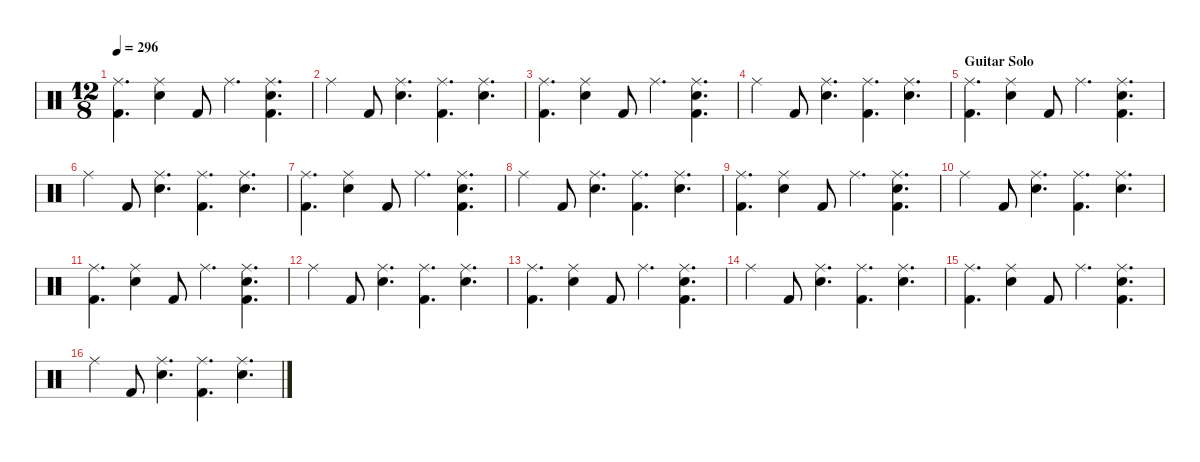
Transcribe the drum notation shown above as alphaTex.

\hideDynamics
\bracketExtendMode nobrackets
\singleTrackTrackNamePolicy hidden
\multiTrackTrackNamePolicy hidden
\firstSystemTrackNameMode fullname
\firstSystemTrackNameOrientation horizontal
\otherSystemsTrackNameOrientation horizontal
\track ("Drumkit" "Drums") {instrument percussion}
\staff {score}
\articulation defaults
\ts (12 8)
\tempo 296
\clef neutral
\ks c
("Ride (middle)" "Kick (hit) 2").4{d dy f beam Down} ("Ride (middle)" "Snare (hit) 2").4{beam Down} "Kick (hit) 2".8{beam Up} "Ride (middle)".4{d beam Down} ("Ride (middle)" "Snare (hit) 2" "Kick (hit) 2").4{d beam Down} |
"Ride (middle)".4{beam Down} "Kick (hit) 2".8{beam Up} ("Ride (middle)" "Snare (hit) 2").4{d beam Down} ("Ride (middle)" "Kick (hit) 2").4{d beam Down} ("Ride (middle)" "Snare (hit) 2").4{d beam Down} |
("Ride (middle)" "Kick (hit) 2").4{d beam Down} ("Ride (middle)" "Snare (hit) 2").4{beam Down} "Kick (hit) 2".8{beam Up} "Ride (middle)".4{d beam Down} ("Ride (middle)" "Snare (hit) 2" "Kick (hit) 2").4{d beam Down} |
"Ride (middle)".4{beam Down} "Kick (hit) 2".8{beam Up} ("Ride (middle)" "Snare (hit) 2").4{d beam Down} ("Ride (middle)" "Kick (hit) 2").4{d beam Down} ("Ride (middle)" "Snare (hit) 2").4{d beam Down} |
\section ("" "Guitar Solo")
("Ride (middle)" "Kick (hit) 2").4{d beam Down} ("Ride (middle)" "Snare (hit) 2").4{beam Down} "Kick (hit) 2".8{beam Up} "Ride (middle)".4{d beam Down} ("Ride (middle)" "Snare (hit) 2" "Kick (hit) 2").4{d beam Down} |
"Ride (middle)".4{beam Down} "Kick (hit) 2".8{beam Up} ("Ride (middle)" "Snare (hit) 2").4{d beam Down} ("Ride (middle)" "Kick (hit) 2").4{d beam Down} ("Ride (middle)" "Snare (hit) 2").4{d beam Down} |
("Ride (middle)" "Kick (hit) 2").4{d beam Down} ("Ride (middle)" "Snare (hit) 2").4{beam Down} "Kick (hit) 2".8{beam Up} "Ride (middle)".4{d beam Down} ("Ride (middle)" "Snare (hit) 2" "Kick (hit) 2").4{d beam Down} |
"Ride (middle)".4{beam Down} "Kick (hit) 2".8{beam Up} ("Ride (middle)" "Snare (hit) 2").4{d beam Down} ("Ride (middle)" "Kick (hit) 2").4{d beam Down} ("Ride (middle)" "Snare (hit) 2").4{d beam Down} |
("Ride (middle)" "Kick (hit) 2").4{d beam Down} ("Ride (middle)" "Snare (hit) 2").4{beam Down} "Kick (hit) 2".8{beam Up} "Ride (middle)".4{d beam Down} ("Ride (middle)" "Snare (hit) 2" "Kick (hit) 2").4{d beam Down} |
"Ride (middle)".4{beam Down} "Kick (hit) 2".8{beam Up} ("Ride (middle)" "Snare (hit) 2").4{d beam Down} ("Ride (middle)" "Kick (hit) 2").4{d beam Down} ("Ride (middle)" "Snare (hit) 2").4{d beam Down} |
("Ride (middle)" "Kick (hit) 2").4{d beam Down} ("Ride (middle)" "Snare (hit) 2").4{beam Down} "Kick (hit) 2".8{beam Up} "Ride (middle)".4{d beam Down} ("Ride (middle)" "Snare (hit) 2" "Kick (hit) 2").4{d beam Down} |
"Ride (middle)".4{beam Down} "Kick (hit) 2".8{beam Up} ("Ride (middle)" "Snare (hit) 2").4{d beam Down} ("Ride (middle)" "Kick (hit) 2").4{d beam Down} ("Ride (middle)" "Snare (hit) 2").4{d beam Down} |
("Ride (middle)" "Kick (hit) 2").4{d beam Down} ("Ride (middle)" "Snare (hit) 2").4{beam Down} "Kick (hit) 2".8{beam Up} "Ride (middle)".4{d beam Down} ("Ride (middle)" "Snare (hit) 2" "Kick (hit) 2").4{d beam Down} |
"Ride (middle)".4{beam Down} "Kick (hit) 2".8{beam Up} ("Ride (middle)" "Snare (hit) 2").4{d beam Down} ("Ride (middle)" "Kick (hit) 2").4{d beam Down} ("Ride (middle)" "Snare (hit) 2").4{d beam Down} |
("Ride (middle)" "Kick (hit) 2").4{d beam Down} ("Ride (middle)" "Snare (hit) 2").4{beam Down} "Kick (hit) 2".8{beam Up} "Ride (middle)".4{d beam Down} ("Ride (middle)" "Snare (hit) 2" "Kick (hit) 2").4{d beam Down} |
"Ride (middle)".4{beam Down} "Kick (hit) 2".8{beam Up} ("Ride (middle)" "Snare (hit) 2").4{d beam Down} ("Ride (middle)" "Kick (hit) 2").4{d beam Down} ("Ride (middle)" "Snare (hit) 2").4{d beam Down}
